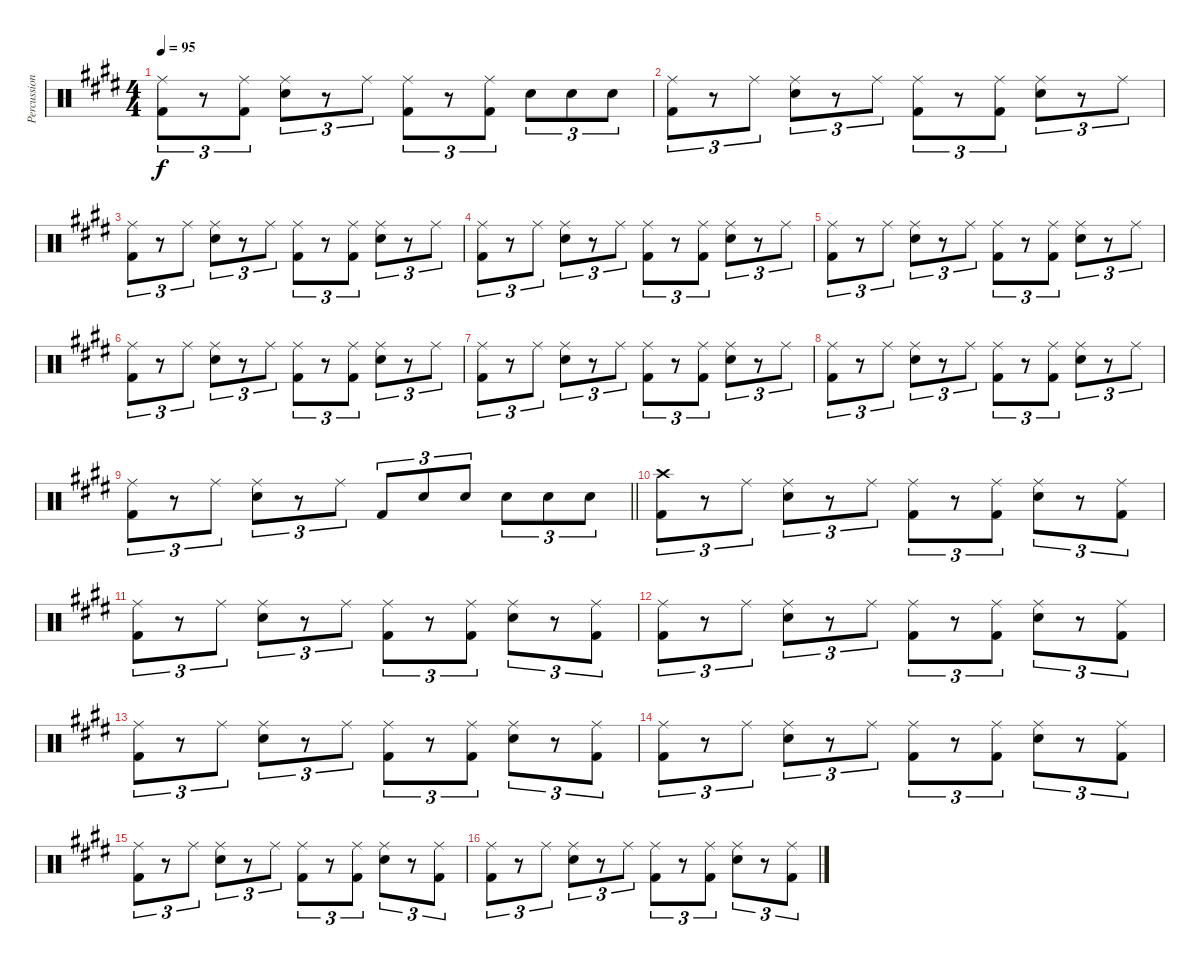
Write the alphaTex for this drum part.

\track ("Percussion" "Percussion") {instrument percussion}
\staff {score}
\articulation defaults
\ts (4 4)
\tempo 95
\clef neutral
\ks e
("Ride (middle)" "Kick (hit) 2").8{tu (3 2) dy f} r.8{tu (3 2)} ("Ride (middle)" "Kick (hit) 2").8{tu (3 2)} ("Ride (middle)" "Snare (hit) 2").8{tu (3 2)} r.8{tu (3 2)} "Ride (middle)".8{tu (3 2)} ("Ride (middle)" "Kick (hit) 2").8{tu (3 2)} r.8{tu (3 2)} ("Ride (middle)" "Kick (hit) 2").8{tu (3 2)} "Snare (hit) 2".8{tu (3 2)} "Snare (hit) 2".8{tu (3 2)} "Snare (hit) 2".8{tu (3 2)} |
("Ride (middle)" "Kick (hit) 2").8{tu (3 2)} r.8{tu (3 2)} "Ride (middle)".8{tu (3 2)} ("Ride (middle)" "Snare (hit) 2").8{tu (3 2)} r.8{tu (3 2)} "Ride (middle)".8{tu (3 2)} ("Ride (middle)" "Kick (hit) 2").8{tu (3 2)} r.8{tu (3 2)} ("Ride (middle)" "Kick (hit) 2").8{tu (3 2)} ("Ride (middle)" "Snare (hit) 2").8{tu (3 2)} r.8{tu (3 2)} "Ride (middle)".8{tu (3 2)} |
("Ride (middle)" "Kick (hit) 2").8{tu (3 2)} r.8{tu (3 2)} "Ride (middle)".8{tu (3 2)} ("Ride (middle)" "Snare (hit) 2").8{tu (3 2)} r.8{tu (3 2)} "Ride (middle)".8{tu (3 2)} ("Ride (middle)" "Kick (hit) 2").8{tu (3 2)} r.8{tu (3 2)} ("Ride (middle)" "Kick (hit) 2").8{tu (3 2)} ("Ride (middle)" "Snare (hit) 2").8{tu (3 2)} r.8{tu (3 2)} "Ride (middle)".8{tu (3 2)} |
("Ride (middle)" "Kick (hit) 2").8{tu (3 2)} r.8{tu (3 2)} "Ride (middle)".8{tu (3 2)} ("Ride (middle)" "Snare (hit) 2").8{tu (3 2)} r.8{tu (3 2)} "Ride (middle)".8{tu (3 2)} ("Ride (middle)" "Kick (hit) 2").8{tu (3 2)} r.8{tu (3 2)} ("Ride (middle)" "Kick (hit) 2").8{tu (3 2)} ("Ride (middle)" "Snare (hit) 2").8{tu (3 2)} r.8{tu (3 2)} "Ride (middle)".8{tu (3 2)} |
("Ride (middle)" "Kick (hit) 2").8{tu (3 2)} r.8{tu (3 2)} "Ride (middle)".8{tu (3 2)} ("Ride (middle)" "Snare (hit) 2").8{tu (3 2)} r.8{tu (3 2)} "Ride (middle)".8{tu (3 2)} ("Ride (middle)" "Kick (hit) 2").8{tu (3 2)} r.8{tu (3 2)} ("Ride (middle)" "Kick (hit) 2").8{tu (3 2)} ("Ride (middle)" "Snare (hit) 2").8{tu (3 2)} r.8{tu (3 2)} "Ride (middle)".8{tu (3 2)} |
("Ride (middle)" "Kick (hit) 2").8{tu (3 2)} r.8{tu (3 2)} "Ride (middle)".8{tu (3 2)} ("Ride (middle)" "Snare (hit) 2").8{tu (3 2)} r.8{tu (3 2)} "Ride (middle)".8{tu (3 2)} ("Ride (middle)" "Kick (hit) 2").8{tu (3 2)} r.8{tu (3 2)} ("Ride (middle)" "Kick (hit) 2").8{tu (3 2)} ("Ride (middle)" "Snare (hit) 2").8{tu (3 2)} r.8{tu (3 2)} "Ride (middle)".8{tu (3 2)} |
("Ride (middle)" "Kick (hit) 2").8{tu (3 2)} r.8{tu (3 2)} "Ride (middle)".8{tu (3 2)} ("Ride (middle)" "Snare (hit) 2").8{tu (3 2)} r.8{tu (3 2)} "Ride (middle)".8{tu (3 2)} ("Ride (middle)" "Kick (hit) 2").8{tu (3 2)} r.8{tu (3 2)} ("Ride (middle)" "Kick (hit) 2").8{tu (3 2)} ("Ride (middle)" "Snare (hit) 2").8{tu (3 2)} r.8{tu (3 2)} "Ride (middle)".8{tu (3 2)} |
("Ride (middle)" "Kick (hit) 2").8{tu (3 2)} r.8{tu (3 2)} "Ride (middle)".8{tu (3 2)} ("Ride (middle)" "Snare (hit) 2").8{tu (3 2)} r.8{tu (3 2)} "Ride (middle)".8{tu (3 2)} ("Ride (middle)" "Kick (hit) 2").8{tu (3 2)} r.8{tu (3 2)} ("Ride (middle)" "Kick (hit) 2").8{tu (3 2)} ("Ride (middle)" "Snare (hit) 2").8{tu (3 2)} r.8{tu (3 2)} "Ride (middle)".8{tu (3 2)} |
\barLineRight lightlight
("Ride (middle)" "Kick (hit) 2").8{tu (3 2)} r.8{tu (3 2)} "Ride (middle)".8{tu (3 2)} ("Ride (middle)" "Snare (hit) 2").8{tu (3 2)} r.8{tu (3 2)} "Ride (middle)".8{tu (3 2)} "Kick (hit) 2".8{tu (3 2)} "Snare (hit) 2".8{tu (3 2)} "Snare (hit) 2".8{tu (3 2)} "Snare (hit) 2".8{tu (3 2)} "Snare (hit) 2".8{tu (3 2)} "Snare (hit) 2".8{tu (3 2)} |
("Crash high (hit)" "Kick (hit) 2").8{tu (3 2)} r.8{tu (3 2)} "Ride (middle)".8{tu (3 2)} ("Ride (middle)" "Snare (hit) 2").8{tu (3 2)} r.8{tu (3 2)} "Ride (middle)".8{tu (3 2)} ("Ride (middle)" "Kick (hit) 2").8{tu (3 2)} r.8{tu (3 2)} ("Ride (middle)" "Kick (hit) 2").8{tu (3 2)} ("Ride (middle)" "Snare (hit) 2").8{tu (3 2)} r.8{tu (3 2)} ("Ride (middle)" "Kick (hit) 2").8{tu (3 2)} |
("Ride (middle)" "Kick (hit) 2").8{tu (3 2)} r.8{tu (3 2)} "Ride (middle)".8{tu (3 2)} ("Ride (middle)" "Snare (hit) 2").8{tu (3 2)} r.8{tu (3 2)} "Ride (middle)".8{tu (3 2)} ("Ride (middle)" "Kick (hit) 2").8{tu (3 2)} r.8{tu (3 2)} ("Ride (middle)" "Kick (hit) 2").8{tu (3 2)} ("Ride (middle)" "Snare (hit) 2").8{tu (3 2)} r.8{tu (3 2)} ("Ride (middle)" "Kick (hit) 2").8{tu (3 2)} |
("Ride (middle)" "Kick (hit) 2").8{tu (3 2)} r.8{tu (3 2)} "Ride (middle)".8{tu (3 2)} ("Ride (middle)" "Snare (hit) 2").8{tu (3 2)} r.8{tu (3 2)} "Ride (middle)".8{tu (3 2)} ("Ride (middle)" "Kick (hit) 2").8{tu (3 2)} r.8{tu (3 2)} ("Ride (middle)" "Kick (hit) 2").8{tu (3 2)} ("Ride (middle)" "Snare (hit) 2").8{tu (3 2)} r.8{tu (3 2)} ("Ride (middle)" "Kick (hit) 2").8{tu (3 2)} |
("Ride (middle)" "Kick (hit) 2").8{tu (3 2)} r.8{tu (3 2)} "Ride (middle)".8{tu (3 2)} ("Ride (middle)" "Snare (hit) 2").8{tu (3 2)} r.8{tu (3 2)} "Ride (middle)".8{tu (3 2)} ("Ride (middle)" "Kick (hit) 2").8{tu (3 2)} r.8{tu (3 2)} ("Ride (middle)" "Kick (hit) 2").8{tu (3 2)} ("Ride (middle)" "Snare (hit) 2").8{tu (3 2)} r.8{tu (3 2)} ("Ride (middle)" "Kick (hit) 2").8{tu (3 2)} |
("Ride (middle)" "Kick (hit) 2").8{tu (3 2)} r.8{tu (3 2)} "Ride (middle)".8{tu (3 2)} ("Ride (middle)" "Snare (hit) 2").8{tu (3 2)} r.8{tu (3 2)} "Ride (middle)".8{tu (3 2)} ("Ride (middle)" "Kick (hit) 2").8{tu (3 2)} r.8{tu (3 2)} ("Ride (middle)" "Kick (hit) 2").8{tu (3 2)} ("Ride (middle)" "Snare (hit) 2").8{tu (3 2)} r.8{tu (3 2)} ("Ride (middle)" "Kick (hit) 2").8{tu (3 2)} |
("Ride (middle)" "Kick (hit) 2").8{tu (3 2)} r.8{tu (3 2)} "Ride (middle)".8{tu (3 2)} ("Ride (middle)" "Snare (hit) 2").8{tu (3 2)} r.8{tu (3 2)} "Ride (middle)".8{tu (3 2)} ("Ride (middle)" "Kick (hit) 2").8{tu (3 2)} r.8{tu (3 2)} ("Ride (middle)" "Kick (hit) 2").8{tu (3 2)} ("Ride (middle)" "Snare (hit) 2").8{tu (3 2)} r.8{tu (3 2)} ("Ride (middle)" "Kick (hit) 2").8{tu (3 2)} |
("Ride (middle)" "Kick (hit) 2").8{tu (3 2)} r.8{tu (3 2)} "Ride (middle)".8{tu (3 2)} ("Ride (middle)" "Snare (hit) 2").8{tu (3 2)} r.8{tu (3 2)} "Ride (middle)".8{tu (3 2)} ("Ride (middle)" "Kick (hit) 2").8{tu (3 2)} r.8{tu (3 2)} ("Ride (middle)" "Kick (hit) 2").8{tu (3 2)} ("Ride (middle)" "Snare (hit) 2").8{tu (3 2)} r.8{tu (3 2)} ("Ride (middle)" "Kick (hit) 2").8{tu (3 2)}
